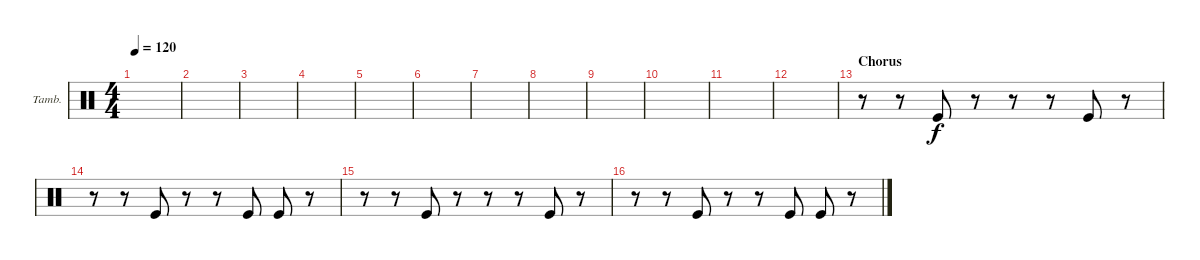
\defaultSystemsLayout 4
\bracketExtendMode groupsimilarinstruments
\firstSystemTrackNameOrientation horizontal
\otherSystemsTrackNameOrientation horizontal
\track ("Tambourine" "Tamb.") {instrument percussion}
\staff {score}
\articulation defaults
\ts (4 4)
\tempo 120
\clef neutral
\scale
0.333333
\ks c
|
\scale
0.333333 |
\scale
0.333333 |
\scale
0.333333 |
\scale
0.333333 |
\scale
0.333333 |
\scale
0.333333 |
\scale
0.333333 |
\scale
0.333333 |
\scale
0.333333 |
\scale
0.333333 |
\scale
0.333333 |
\section ("" "Chorus")
\scale
0.333333 r.8 r.8 "Kick (hit)".8 r.8 r.8 r.8 "Kick (hit)".8 r.8 |
\scale
0.333333 r.8 r.8 "Kick (hit)".8 r.8 r.8 "Kick (hit)".8 "Kick (hit)".8 r.8 |
\scale
0.333333 r.8 r.8 "Kick (hit)".8 r.8 r.8 r.8 "Kick (hit)".8 r.8 |
\scale
0.333333 r.8 r.8 "Kick (hit)".8 r.8 r.8 "Kick (hit)".8 "Kick (hit)".8 r.8
